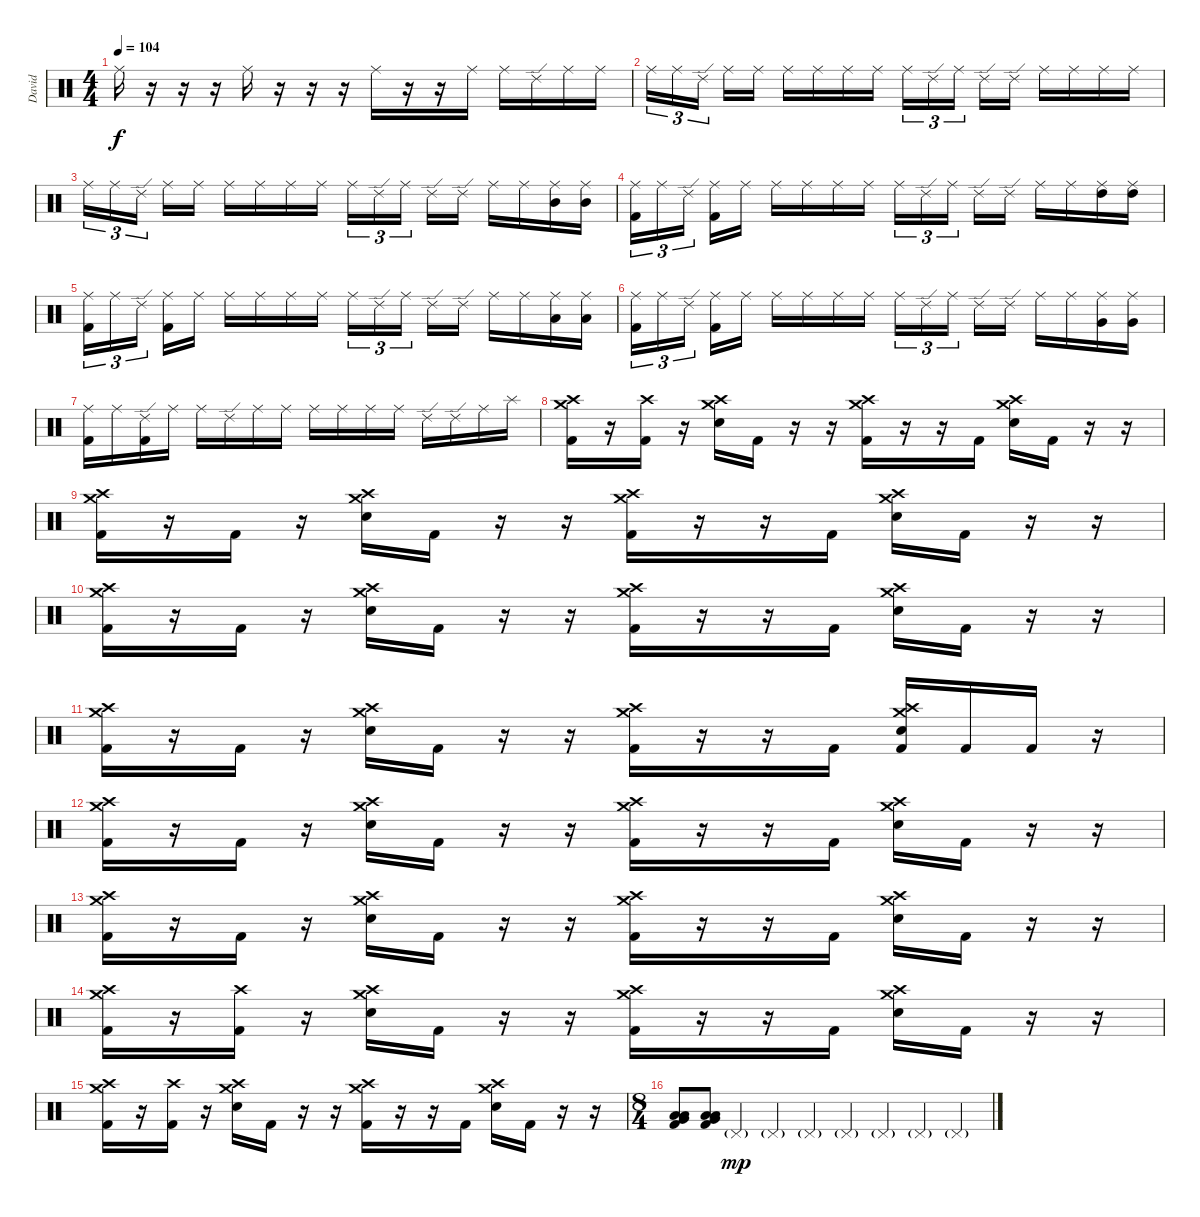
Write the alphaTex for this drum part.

\track ("David" "David") {instrument percussion}
\staff {score}
\articulation defaults
\ts (4 4)
\tempo 104
\clef neutral
\ks c "Ride (middle)".16{dy f}
r.16 r.16 r.16 "Ride (middle)".16 r.16 r.16 r.16 "Ride (middle)".16 r.16 r.16 "Ride (middle)".16 "Ride (middle)".16 "Ride (edge) 2".16 "Ride (middle)".16 "Ride (middle)".16 |
"Ride (middle)".16{tu (3 2)} "Ride (middle)".16{tu (3 2)} "Ride (edge) 2".16{tu (3 2)} "Ride (middle)".16 "Ride (middle)".16 "Ride (middle)".16 "Ride (middle)".16 "Ride (middle)".16 "Ride (middle)".16 "Ride (middle)".16{tu (3 2)} "Ride (edge) 2".16{tu (3 2)} "Ride (middle)".16{tu (3 2)} "Ride (edge) 2".16 "Ride (edge) 2".16 "Ride (middle)".16 "Ride (middle)".16 "Ride (middle)".16 "Ride (middle)".16 |
"Ride (middle)".16{tu (3 2)} "Ride (middle)".16{tu (3 2)} "Ride (edge) 2".16{tu (3 2)} "Ride (middle)".16 "Ride (middle)".16 "Ride (middle)".16 "Ride (middle)".16 "Ride (middle)".16 "Ride (middle)".16 "Ride (middle)".16{tu (3 2)} "Ride (edge) 2".16{tu (3 2)} "Ride (middle)".16{tu (3 2)} "Ride (edge) 2".16 "Ride (edge) 2".16 "Ride (middle)".16 "Ride (middle)".16 ("Ride (middle)" "Mid Tom (hit)").16 ("Ride (middle)" "Mid Tom (hit)").16 |
("Ride (middle)" "Kick (hit) 2").16{tu (3 2)} "Ride (middle)".16{tu (3 2)} "Ride (edge) 2".16{tu (3 2)} ("Ride (middle)" "Kick (hit) 2").16 "Ride (middle)".16 "Ride (middle)".16 "Ride (middle)".16 "Ride (middle)".16 "Ride (middle)".16 "Ride (middle)".16{tu (3 2)} "Ride (edge) 2".16{tu (3 2)} "Ride (middle)".16{tu (3 2)} "Ride (edge) 2".16 "Ride (edge) 2".16 "Ride (middle)".16 "Ride (middle)".16 ("Ride (middle)" "High Tom (hit)").16 ("Ride (middle)" "High Tom (hit)").16 |
("Ride (middle)" "Kick (hit) 2").16{tu (3 2)} "Ride (middle)".16{tu (3 2)} "Ride (edge) 2".16{tu (3 2)} ("Ride (middle)" "Kick (hit) 2").16 "Ride (middle)".16 "Ride (middle)".16 "Ride (middle)".16 "Ride (middle)".16 "Ride (middle)".16 "Ride (middle)".16{tu (3 2)} "Ride (edge) 2".16{tu (3 2)} "Ride (middle)".16{tu (3 2)} "Ride (edge) 2".16 "Ride (edge) 2".16 "Ride (middle)".16 "Ride (middle)".16 ("Ride (middle)" "Low Tom (hit)").16 ("Ride (middle)" "Low Tom (hit)").16 |
("Ride (middle)" "Kick (hit) 2").16{tu (3 2)} "Ride (middle)".16{tu (3 2)} "Ride (edge) 2".16{tu (3 2)} ("Ride (middle)" "Kick (hit) 2").16 "Ride (middle)".16 "Ride (middle)".16 "Ride (middle)".16 "Ride (middle)".16 "Ride (middle)".16 "Ride (middle)".16{tu (3 2)} "Ride (edge) 2".16{tu (3 2)} "Ride (middle)".16{tu (3 2)} "Ride (edge) 2".16 "Ride (edge) 2".16 "Ride (middle)".16 "Ride (middle)".16 ("Ride (middle)" "Very Low Tom (hit)").16 ("Ride (middle)" "Very Low Tom (hit)").16 |
("Ride (middle)" "Kick (hit) 2").16 "Ride (middle)".16 ("Ride (edge) 2" "Kick (hit) 2").16 "Ride (middle)".16 "Ride (middle)".16 "Ride (edge) 2".16 "Ride (middle)".16 "Ride (middle)".16 "Ride (middle)".16 "Ride (middle)".16 "Ride (middle)".16 "Ride (middle)".16 "Ride (edge) 2".16 "Ride (edge) 2".16 "Ride (middle)".16 "Splash (hit)".16 |
("Crash high (hit)" "Crash medium (hit)" "Kick (hit) 2").16{volume 16} r.16 ("Crash high (hit)" "Kick (hit) 2").16 r.16 ("Crash high (hit)" "Crash medium (hit)" "Snare (hit) 2").16 "Kick (hit) 2".16 r.16 r.16 ("Crash high (hit)" "Crash medium (hit)" "Kick (hit) 2").16 r.16 r.16 "Kick (hit) 2".16 ("Crash high (hit)" "Crash medium (hit)" "Snare (hit) 2").16 "Kick (hit) 2".16 r.16 r.16 |
("Crash high (hit)" "Crash medium (hit)" "Kick (hit) 2").16 r.16 "Kick (hit) 2".16 r.16 ("Crash high (hit)" "Crash medium (hit)" "Snare (hit) 2").16 "Kick (hit) 2".16 r.16 r.16 ("Crash high (hit)" "Crash medium (hit)" "Kick (hit) 2").16 r.16 r.16 "Kick (hit) 2".16 ("Crash high (hit)" "Crash medium (hit)" "Snare (hit) 2").16 "Kick (hit) 2".16 r.16 r.16 |
("Crash high (hit)" "Crash medium (hit)" "Kick (hit) 2").16 r.16 "Kick (hit) 2".16 r.16 ("Crash high (hit)" "Crash medium (hit)" "Snare (hit) 2").16 "Kick (hit) 2".16 r.16 r.16 ("Crash high (hit)" "Crash medium (hit)" "Kick (hit) 2").16 r.16 r.16 "Kick (hit) 2".16 ("Crash high (hit)" "Crash medium (hit)" "Snare (hit) 2").16 "Kick (hit) 2".16 r.16 r.16 |
("Crash high (hit)" "Crash medium (hit)" "Kick (hit) 2").16 r.16 "Kick (hit) 2".16 r.16 ("Crash high (hit)" "Crash medium (hit)" "Snare (hit) 2").16 "Kick (hit) 2".16 r.16 r.16 ("Crash high (hit)" "Crash medium (hit)" "Kick (hit) 2").16 r.16 r.16 "Kick (hit) 2".16 ("Crash high (hit)" "Crash medium (hit)" "Snare (hit) 2" "Kick (hit) 2").16 "Kick (hit) 2".16 "Kick (hit) 2".16 r.16 |
("Crash high (hit)" "Crash medium (hit)" "Kick (hit) 2").16 r.16 "Kick (hit) 2".16 r.16 ("Crash high (hit)" "Crash medium (hit)" "Snare (hit) 2").16 "Kick (hit) 2".16 r.16 r.16 ("Crash high (hit)" "Crash medium (hit)" "Kick (hit) 2").16 r.16 r.16 "Kick (hit) 2".16 ("Crash high (hit)" "Crash medium (hit)" "Snare (hit) 2").16 "Kick (hit) 2".16 r.16 r.16 |
("Crash high (hit)" "Crash medium (hit)" "Kick (hit) 2").16 r.16 "Kick (hit) 2".16 r.16 ("Crash high (hit)" "Crash medium (hit)" "Snare (hit) 2").16 "Kick (hit) 2".16 r.16 r.16 ("Crash high (hit)" "Crash medium (hit)" "Kick (hit) 2").16 r.16 r.16 "Kick (hit) 2".16 ("Crash high (hit)" "Crash medium (hit)" "Snare (hit) 2").16 "Kick (hit) 2".16 r.16 r.16 |
("Crash high (hit)" "Crash medium (hit)" "Kick (hit) 2").16 r.16 ("Crash high (hit)" "Kick (hit) 2").16 r.16 ("Crash high (hit)" "Crash medium (hit)" "Snare (hit) 2").16 "Kick (hit) 2".16 r.16 r.16 ("Crash high (hit)" "Crash medium (hit)" "Kick (hit) 2").16 r.16 r.16 "Kick (hit) 2".16 ("Crash high (hit)" "Crash medium (hit)" "Snare (hit) 2").16 "Kick (hit) 2".16 r.16 r.16 |
("Crash high (hit)" "Crash medium (hit)" "Kick (hit) 2").16 r.16 ("Crash high (hit)" "Kick (hit) 2").16 r.16 ("Crash high (hit)" "Crash medium (hit)" "Snare (hit) 2").16 "Kick (hit) 2".16 r.16 r.16 ("Crash high (hit)" "Crash medium (hit)" "Kick (hit) 2").16 r.16 r.16 "Kick (hit) 2".16 ("Crash high (hit)" "Crash medium (hit)" "Snare (hit) 2").16 "Kick (hit) 2".16 r.16 r.16 |
\ts (8 4)
("Very Low Tom (hit)" "Low Floor Tom (hit)" "Low Floor Tom (hit)" "Kick (hit) 2").8 ("Very Low Tom (hit)" "Low Floor Tom (hit)" "Low Floor Tom (hit)" "Kick (hit) 2").8 "Pedal Hi-Hat (hit)"{g}.4{dy mp} "Pedal Hi-Hat (hit)"{g}.4 "Pedal Hi-Hat (hit)"{g}.4 "Pedal Hi-Hat (hit)"{g}.4 "Pedal Hi-Hat (hit)"{g}.4 "Pedal Hi-Hat (hit)"{g}.4 "Pedal Hi-Hat (hit)"{g}.4
